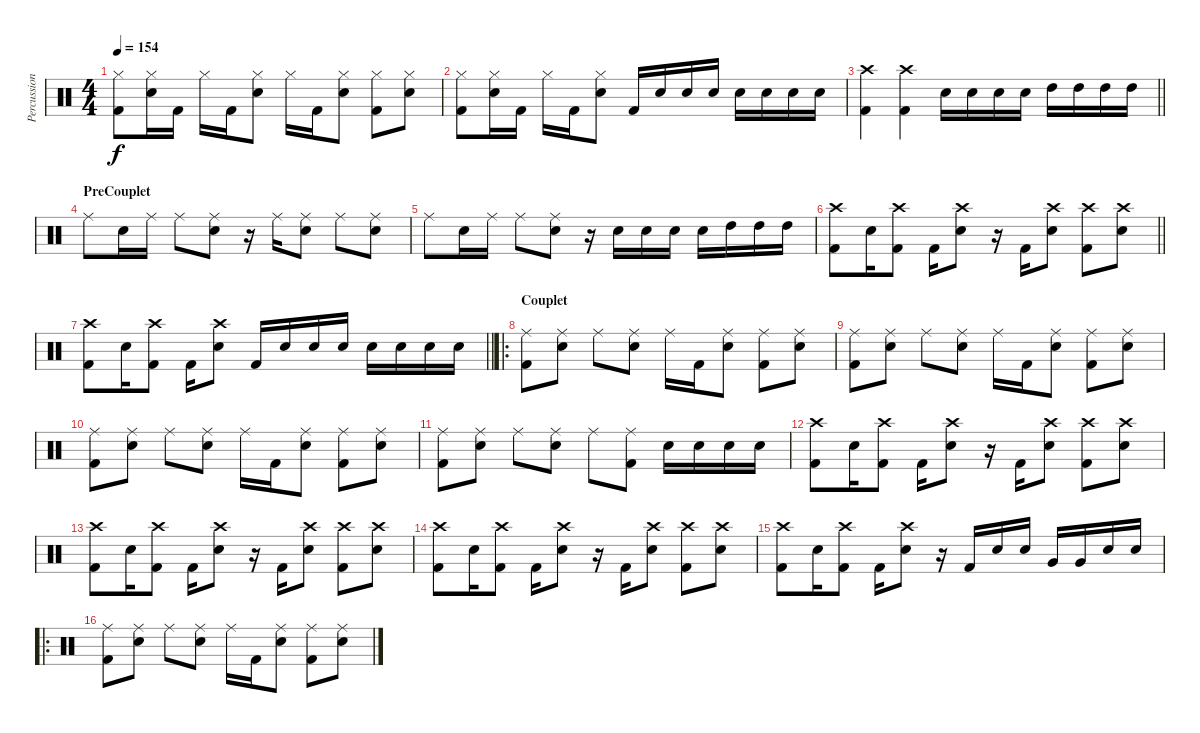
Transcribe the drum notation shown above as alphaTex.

\track ("Percussion" "Percussion") {instrument percussion}
\staff {score}
\articulation defaults
\ts (4 4)
\tempo 154
\clef neutral
\ks c
("Hi-Hat (closed)" "Kick (hit) 2").8{dy f} ("Hi-Hat (closed)" "Snare (hit) 2").16 "Kick (hit) 2".16 "Hi-Hat (closed)".16 "Kick (hit) 2".16 ("Hi-Hat (closed)" "Snare (hit) 2").8 "Hi-Hat (closed)".16 "Kick (hit) 2".16 ("Hi-Hat (closed)" "Snare (hit) 2").8 ("Hi-Hat (closed)" "Kick (hit) 2").8 ("Hi-Hat (closed)" "Snare (hit) 2").8 |
("Hi-Hat (closed)" "Kick (hit) 2").8 ("Hi-Hat (closed)" "Snare (hit) 2").16 "Kick (hit) 2".16 "Hi-Hat (closed)".16 "Kick (hit) 2".16 ("Hi-Hat (closed)" "Snare (hit) 2").8 "Kick (hit) 2".16 "Snare (hit) 2".16 "Snare (hit) 2".16 "Snare (hit) 2".16 "Snare (hit) 2".16 "Snare (hit) 2".16 "Snare (hit) 2".16 "Snare (hit) 2".16 |
\barLineRight lightlight
("Crash high (hit)" "Kick (hit) 2").4 ("Crash high (hit)" "Kick (hit) 2").4 "Snare (hit) 2".16 "Snare (hit) 2".16 "Snare (hit) 2".16 "Snare (hit) 2".16 "High Tom (hit)".16 "High Tom (hit)".16 "High Tom (hit)".16 "High Tom (hit)".16 |
\section ("" "PreCouplet")
"Ride (middle)".8 "Snare (hit) 2".16 "Ride (middle)".16 "Ride (middle)".8 ("Ride (middle)" "Snare (hit) 2").8 r.16 "Ride (middle)".16 ("Ride (middle)" "Snare (hit) 2").8 "Ride (middle)".8 ("Ride (middle)" "Snare (hit) 2").8 |
"Ride (middle)".8 "Snare (hit) 2".16 "Ride (middle)".16 "Ride (middle)".8 ("Ride (middle)" "Snare (hit) 2").8 r.16 "Snare (hit) 2".16 "Snare (hit) 2".16 "Snare (hit) 2".16 "Snare (hit) 2".16 "High Tom (hit)".16 "High Tom (hit)".16 "High Tom (hit)".16 |
\barLineRight lightlight
("Crash high (hit)" "Kick (hit) 2").8 "Snare (hit) 2".16 ("Crash high (hit)" "Kick (hit) 2").8 "Kick (hit) 2".16 ("Crash high (hit)" "Snare (hit) 2").8 r.16 "Kick (hit) 2".16 ("Crash high (hit)" "Snare (hit) 2").8 ("Crash high (hit)" "Kick (hit) 2").8 ("Crash high (hit)" "Snare (hit) 2").8 |
\barLineRight lightlight
("Crash high (hit)" "Kick (hit) 2").8 "Snare (hit) 2".16 ("Crash high (hit)" "Kick (hit) 2").8 "Kick (hit) 2".16 ("Crash high (hit)" "Snare (hit) 2").8 "Kick (hit) 2".16 "Snare (hit) 2".16 "Snare (hit) 2".16 "Snare (hit) 2".16 "Snare (hit) 2".16 "Snare (hit) 2".16 "Snare (hit) 2".16 "Snare (hit) 2".16 |
\ro
\section ("" "Couplet")
("Ride (middle)" "Kick (hit) 2").8 ("Ride (middle)" "Snare (hit) 2").8 "Ride (middle)".8 ("Ride (middle)" "Snare (hit) 2").8 "Ride (middle)".16 "Kick (hit) 2".16 ("Ride (middle)" "Snare (hit) 2").8 ("Ride (middle)" "Kick (hit) 2").8 ("Ride (middle)" "Snare (hit) 2").8 |
("Ride (middle)" "Kick (hit) 2").8 ("Ride (middle)" "Snare (hit) 2").8 "Ride (middle)".8 ("Ride (middle)" "Snare (hit) 2").8 "Ride (middle)".16 "Kick (hit) 2".16 ("Ride (middle)" "Snare (hit) 2").8 ("Ride (middle)" "Kick (hit) 2").8 ("Ride (middle)" "Snare (hit) 2").8 |
("Ride (middle)" "Kick (hit) 2").8 ("Ride (middle)" "Snare (hit) 2").8 "Ride (middle)".8 ("Ride (middle)" "Snare (hit) 2").8 "Ride (middle)".16 "Kick (hit) 2".16 ("Ride (middle)" "Snare (hit) 2").8 ("Ride (middle)" "Kick (hit) 2").8 ("Ride (middle)" "Snare (hit) 2").8 |
("Ride (middle)" "Kick (hit) 2").8 ("Ride (middle)" "Snare (hit) 2").8 "Ride (middle)".8 ("Ride (middle)" "Snare (hit) 2").8 "Ride (middle)".8 ("Ride (middle)" "Kick (hit) 2").8 "Snare (hit) 2".16 "Snare (hit) 2".16 "Snare (hit) 2".16 "Snare (hit) 2".16 |
("Crash high (hit)" "Kick (hit) 2").8 "Snare (hit) 2".16 ("Crash high (hit)" "Kick (hit) 2").8 "Kick (hit) 2".16 ("Crash high (hit)" "Snare (hit) 2").8 r.16 "Kick (hit) 2".16 ("Crash high (hit)" "Snare (hit) 2").8 ("Crash high (hit)" "Kick (hit) 2").8 ("Crash high (hit)" "Snare (hit) 2").8 |
("Crash high (hit)" "Kick (hit) 2").8 "Snare (hit) 2".16 ("Crash high (hit)" "Kick (hit) 2").8 "Kick (hit) 2".16 ("Crash high (hit)" "Snare (hit) 2").8 r.16 "Kick (hit) 2".16 ("Crash high (hit)" "Snare (hit) 2").8 ("Crash high (hit)" "Kick (hit) 2").8 ("Crash high (hit)" "Snare (hit) 2").8 |
("Crash high (hit)" "Kick (hit) 2").8 "Snare (hit) 2".16 ("Crash high (hit)" "Kick (hit) 2").8 "Kick (hit) 2".16 ("Crash high (hit)" "Snare (hit) 2").8 r.16 "Kick (hit) 2".16 ("Crash high (hit)" "Snare (hit) 2").8 ("Crash high (hit)" "Kick (hit) 2").8 ("Crash high (hit)" "Snare (hit) 2").8 |
("Crash high (hit)" "Kick (hit) 2").8 "Snare (hit) 2".16 ("Crash high (hit)" "Kick (hit) 2").8 "Kick (hit) 2".16 ("Crash high (hit)" "Snare (hit) 2").8 r.16 "Kick (hit) 2".16 "Snare (hit) 2".16 "Snare (hit) 2".16 "Very Low Tom (hit)".16 "Very Low Tom (hit)".16 "Snare (hit) 2".16 "Snare (hit) 2".16 |
\ro
("Ride (middle)" "Kick (hit) 2").8 ("Ride (middle)" "Snare (hit) 2").8 "Ride (middle)".8 ("Ride (middle)" "Snare (hit) 2").8 "Ride (middle)".16 "Kick (hit) 2".16 ("Ride (middle)" "Snare (hit) 2").8 ("Ride (middle)" "Kick (hit) 2").8 ("Ride (middle)" "Snare (hit) 2").8
